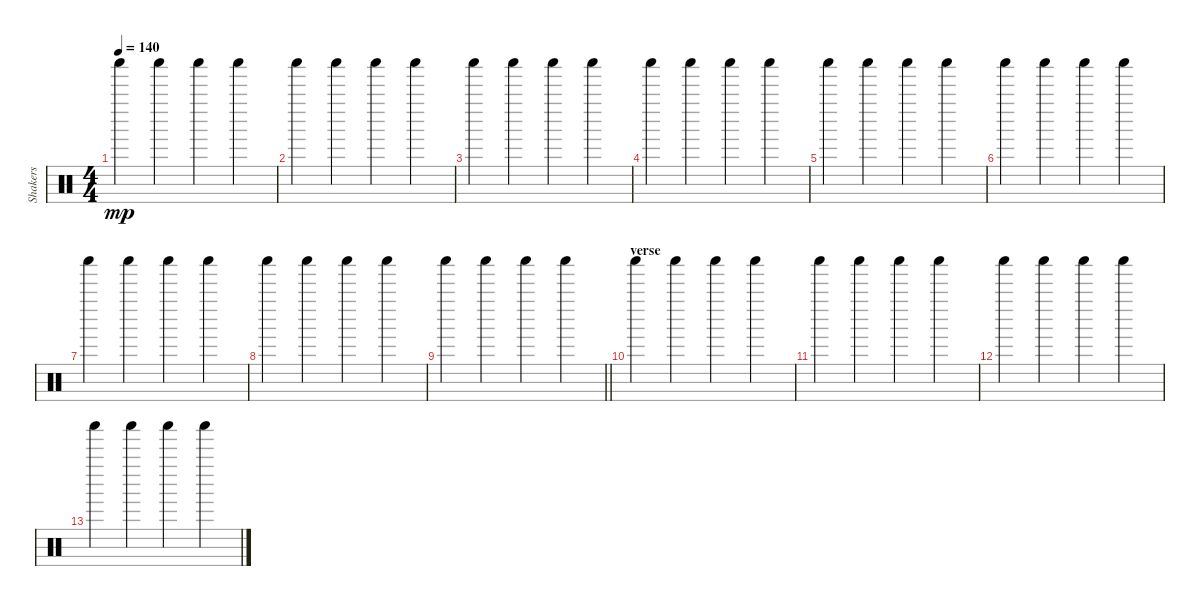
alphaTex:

\track ("Shakers" "Shakers") {instrument percussion}
\staff {score}
\articulation defaults
\ts (4 4)
\tempo 140
\clef neutral
\ks c "Shaker (hit)".4{dy mp} "Shaker (hit)".4 "Shaker (hit)".4 "Shaker (hit)".4
|
"Shaker (hit)".4 "Shaker (hit)".4 "Shaker (hit)".4 "Shaker (hit)".4 |
"Shaker (hit)".4 "Shaker (hit)".4 "Shaker (hit)".4 "Shaker (hit)".4 |
"Shaker (hit)".4 "Shaker (hit)".4 "Shaker (hit)".4 "Shaker (hit)".4 |
"Shaker (hit)".4 "Shaker (hit)".4 "Shaker (hit)".4 "Shaker (hit)".4 |
"Shaker (hit)".4 "Shaker (hit)".4 "Shaker (hit)".4 "Shaker (hit)".4 |
"Shaker (hit)".4 "Shaker (hit)".4 "Shaker (hit)".4 "Shaker (hit)".4 |
"Shaker (hit)".4 "Shaker (hit)".4 "Shaker (hit)".4 "Shaker (hit)".4 |
\barLineRight lightlight "Shaker (hit)".4 "Shaker (hit)".4 "Shaker (hit)".4 "Shaker (hit)".4
|
\section ("" "verse")
"Shaker (hit)".4 "Shaker (hit)".4 "Shaker (hit)".4 "Shaker (hit)".4 |
"Shaker (hit)".4 "Shaker (hit)".4 "Shaker (hit)".4 "Shaker (hit)".4 |
"Shaker (hit)".4 "Shaker (hit)".4 "Shaker (hit)".4 "Shaker (hit)".4 |
"Shaker (hit)".4 "Shaker (hit)".4 "Shaker (hit)".4 "Shaker (hit)".4
